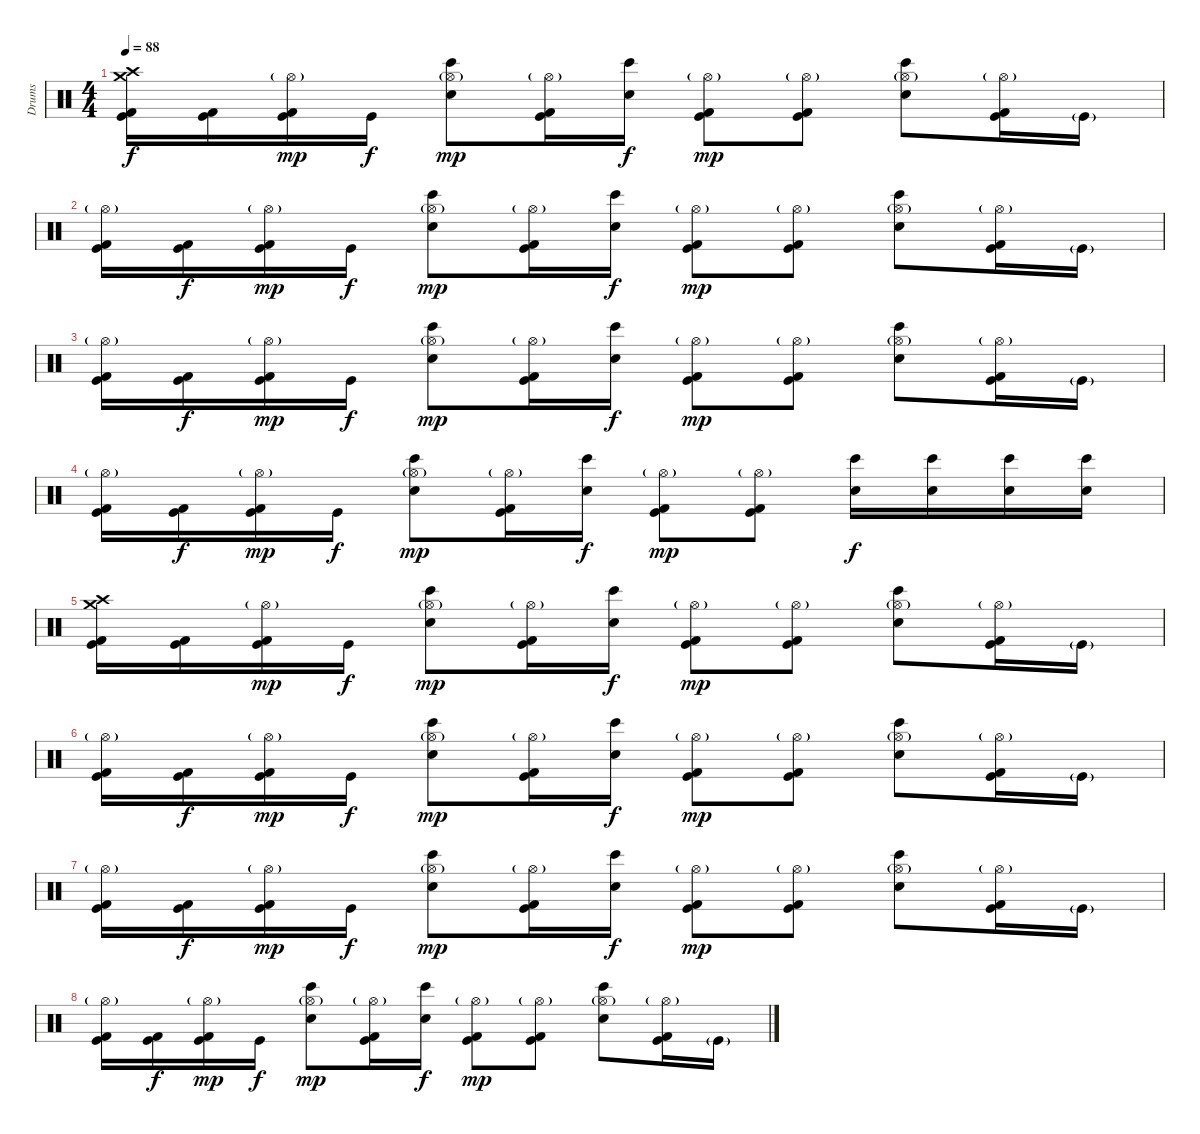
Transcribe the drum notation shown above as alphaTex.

\track ("Drums" "Drums") {instrument percussion}
\staff {score}
\articulation defaults
\ts (4 4)
\tempo 88
\clef neutral
\ks c
("Crash medium (hit)" "Crash high (hit)" "Kick (hit) 2" "Kick (hit)").16{dy f} ("Kick (hit) 2" "Kick (hit)").16 ("Hi-Hat (open)"{g} "Kick (hit) 2" "Kick (hit)").16{dy mp} "Kick (hit)".16{dy f} ("Hi-Hat (open)"{g} "Bongo High (hit)" "Snare (hit) 2").8{dy mp} ("Hi-Hat (open)"{g} "Kick (hit) 2" "Kick (hit)").16 ("Bongo High (hit)" "Snare (hit) 2").16{dy f} ("Hi-Hat (open)"{g} "Kick (hit) 2" "Kick (hit)").8{dy mp} ("Hi-Hat (open)"{g} "Kick (hit) 2" "Kick (hit)").8 ("Hi-Hat (open)"{g} "Bongo High (hit)" "Snare (hit) 2").8 ("Hi-Hat (open)"{g} "Kick (hit) 2" "Kick (hit)").16 "Kick (hit)"{g}.16 |
("Hi-Hat (open)"{g} "Kick (hit) 2" "Kick (hit)").16 ("Kick (hit) 2" "Kick (hit)").16{dy f} ("Hi-Hat (open)"{g} "Kick (hit) 2" "Kick (hit)").16{dy mp} "Kick (hit)".16{dy f} ("Hi-Hat (open)"{g} "Bongo High (hit)" "Snare (hit) 2").8{dy mp} ("Hi-Hat (open)"{g} "Kick (hit) 2" "Kick (hit)").16 ("Bongo High (hit)" "Snare (hit) 2").16{dy f} ("Hi-Hat (open)"{g} "Kick (hit) 2" "Kick (hit)").8{dy mp} ("Hi-Hat (open)"{g} "Kick (hit) 2" "Kick (hit)").8 ("Hi-Hat (open)"{g} "Bongo High (hit)" "Snare (hit) 2").8 ("Hi-Hat (open)"{g} "Kick (hit) 2" "Kick (hit)").16 "Kick (hit)"{g}.16 |
("Hi-Hat (open)"{g} "Kick (hit) 2" "Kick (hit)").16 ("Kick (hit) 2" "Kick (hit)").16{dy f} ("Hi-Hat (open)"{g} "Kick (hit) 2" "Kick (hit)").16{dy mp} "Kick (hit)".16{dy f} ("Hi-Hat (open)"{g} "Bongo High (hit)" "Snare (hit) 2").8{dy mp} ("Hi-Hat (open)"{g} "Kick (hit) 2" "Kick (hit)").16 ("Bongo High (hit)" "Snare (hit) 2").16{dy f} ("Hi-Hat (open)"{g} "Kick (hit) 2" "Kick (hit)").8{dy mp} ("Hi-Hat (open)"{g} "Kick (hit) 2" "Kick (hit)").8 ("Hi-Hat (open)"{g} "Bongo High (hit)" "Snare (hit) 2").8 ("Hi-Hat (open)"{g} "Kick (hit) 2" "Kick (hit)").16 "Kick (hit)"{g}.16 |
("Hi-Hat (open)"{g} "Kick (hit) 2" "Kick (hit)").16 ("Kick (hit) 2" "Kick (hit)").16{dy f} ("Hi-Hat (open)"{g} "Kick (hit) 2" "Kick (hit)").16{dy mp} "Kick (hit)".16{dy f} ("Hi-Hat (open)"{g} "Bongo High (hit)" "Snare (hit) 2").8{dy mp} ("Hi-Hat (open)"{g} "Kick (hit) 2" "Kick (hit)").16 ("Bongo High (hit)" "Snare (hit) 2").16{dy f} ("Hi-Hat (open)"{g} "Kick (hit) 2" "Kick (hit)").8{dy mp} ("Hi-Hat (open)"{g} "Kick (hit) 2" "Kick (hit)").8 ("Bongo High (hit)" "Snare (hit) 2").16{dy f} ("Bongo High (hit)" "Snare (hit) 2").16 ("Bongo High (hit)" "Snare (hit) 2").16 ("Bongo High (hit)" "Snare (hit) 2").16 |
("Crash medium (hit)" "Crash high (hit)" "Kick (hit) 2" "Kick (hit)").16 ("Kick (hit) 2" "Kick (hit)").16 ("Hi-Hat (open)"{g} "Kick (hit) 2" "Kick (hit)").16{dy mp} "Kick (hit)".16{dy f} ("Hi-Hat (open)"{g} "Bongo High (hit)" "Snare (hit) 2").8{dy mp} ("Hi-Hat (open)"{g} "Kick (hit) 2" "Kick (hit)").16 ("Bongo High (hit)" "Snare (hit) 2").16{dy f} ("Hi-Hat (open)"{g} "Kick (hit) 2" "Kick (hit)").8{dy mp} ("Hi-Hat (open)"{g} "Kick (hit) 2" "Kick (hit)").8 ("Hi-Hat (open)"{g} "Bongo High (hit)" "Snare (hit) 2").8 ("Hi-Hat (open)"{g} "Kick (hit) 2" "Kick (hit)").16 "Kick (hit)"{g}.16 |
("Hi-Hat (open)"{g} "Kick (hit) 2" "Kick (hit)").16 ("Kick (hit) 2" "Kick (hit)").16{dy f} ("Hi-Hat (open)"{g} "Kick (hit) 2" "Kick (hit)").16{dy mp} "Kick (hit)".16{dy f} ("Hi-Hat (open)"{g} "Bongo High (hit)" "Snare (hit) 2").8{dy mp} ("Hi-Hat (open)"{g} "Kick (hit) 2" "Kick (hit)").16 ("Bongo High (hit)" "Snare (hit) 2").16{dy f} ("Hi-Hat (open)"{g} "Kick (hit) 2" "Kick (hit)").8{dy mp} ("Hi-Hat (open)"{g} "Kick (hit) 2" "Kick (hit)").8 ("Hi-Hat (open)"{g} "Bongo High (hit)" "Snare (hit) 2").8 ("Hi-Hat (open)"{g} "Kick (hit) 2" "Kick (hit)").16 "Kick (hit)"{g}.16 |
("Hi-Hat (open)"{g} "Kick (hit) 2" "Kick (hit)").16 ("Kick (hit) 2" "Kick (hit)").16{dy f} ("Hi-Hat (open)"{g} "Kick (hit) 2" "Kick (hit)").16{dy mp} "Kick (hit)".16{dy f} ("Hi-Hat (open)"{g} "Bongo High (hit)" "Snare (hit) 2").8{dy mp} ("Hi-Hat (open)"{g} "Kick (hit) 2" "Kick (hit)").16 ("Bongo High (hit)" "Snare (hit) 2").16{dy f} ("Hi-Hat (open)"{g} "Kick (hit) 2" "Kick (hit)").8{dy mp} ("Hi-Hat (open)"{g} "Kick (hit) 2" "Kick (hit)").8 ("Hi-Hat (open)"{g} "Bongo High (hit)" "Snare (hit) 2").8 ("Hi-Hat (open)"{g} "Kick (hit) 2" "Kick (hit)").16 "Kick (hit)"{g}.16 |
("Hi-Hat (open)"{g} "Kick (hit) 2" "Kick (hit)").16 ("Kick (hit) 2" "Kick (hit)").16{dy f} ("Hi-Hat (open)"{g} "Kick (hit) 2" "Kick (hit)").16{dy mp} "Kick (hit)".16{dy f} ("Hi-Hat (open)"{g} "Bongo High (hit)" "Snare (hit) 2").8{dy mp} ("Hi-Hat (open)"{g} "Kick (hit) 2" "Kick (hit)").16 ("Bongo High (hit)" "Snare (hit) 2").16{dy f} ("Hi-Hat (open)"{g} "Kick (hit) 2" "Kick (hit)").8{dy mp} ("Hi-Hat (open)"{g} "Kick (hit) 2" "Kick (hit)").8 ("Hi-Hat (open)"{g} "Bongo High (hit)" "Snare (hit) 2").8 ("Hi-Hat (open)"{g} "Kick (hit) 2" "Kick (hit)").16 "Kick (hit)"{g}.16
